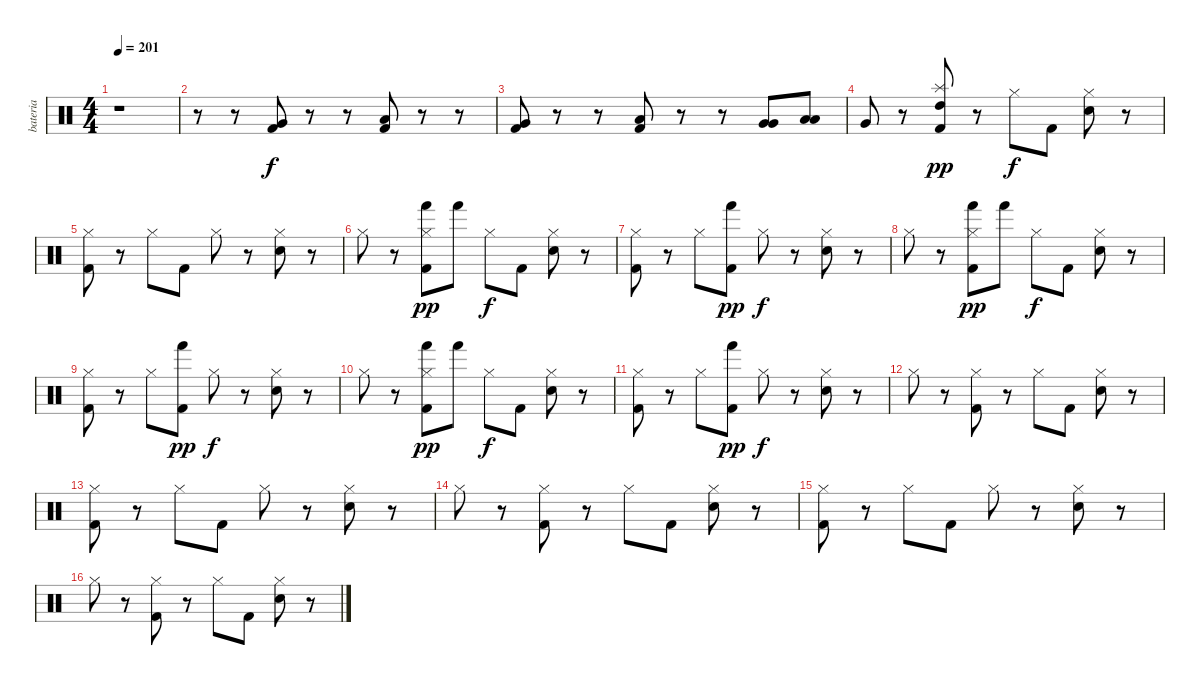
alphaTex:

\track ("bateria" "bateria") {instrument percussion}
\staff {score}
\articulation defaults
\ts (4 4)
\tempo 201
\clef neutral
\ks c
r.1{dy f} |
r.8 r.8 ("Very Low Tom (hit)" "Kick (hit) 2").8 r.8 r.8 ("Low Floor Tom (hit)" "Kick (hit) 2").8 r.8 r.8 |
("Very Low Tom (hit)" "Kick (hit) 2").8 r.8 r.8 ("Low Tom (hit)" "Kick (hit) 2").8 r.8 r.8 ("Very Low Tom (hit)" "Very Low Tom (hit)").8 ("Low Tom (hit)" "Low Tom (hit)").8 |
"Very Low Tom (hit)".8 r.8 ("Splash (hit)" "Kick (hit) 2" "High Tom (hit)").8{dy pp} r.8 "Hi-Hat (closed)".8{dy f} "Kick (hit) 2".8 ("Hi-Hat (closed)" "Electric Snare (hit)").8 r.8 |
("Hi-Hat (closed)" "Kick (hit) 2").8 r.8 "Hi-Hat (closed)".8 "Kick (hit) 2".8 "Hi-Hat (closed)".8 r.8 ("Hi-Hat (closed)" "Electric Snare (hit)").8 r.8 |
"Hi-Hat (closed)".8 r.8 ("Hi-Hat (closed)" "Kick (hit) 2" "Hand (hit)").8{dy pp} "Hand (hit)".8 "Hi-Hat (closed)".8{dy f} "Kick (hit) 2".8 ("Hi-Hat (closed)" "Electric Snare (hit)").8 r.8 |
("Hi-Hat (closed)" "Kick (hit) 2").8 r.8 "Hi-Hat (closed)".8 ("Kick (hit) 2" "Hand (hit)").8{dy pp} "Hi-Hat (closed)".8{dy f} r.8 ("Hi-Hat (closed)" "Electric Snare (hit)").8 r.8 |
"Hi-Hat (closed)".8 r.8 ("Hi-Hat (closed)" "Kick (hit) 2" "Hand (hit)").8{dy pp} "Hand (hit)".8 "Hi-Hat (closed)".8{dy f} "Kick (hit) 2".8 ("Hi-Hat (closed)" "Electric Snare (hit)").8 r.8 |
("Hi-Hat (closed)" "Kick (hit) 2").8 r.8 "Hi-Hat (closed)".8 ("Kick (hit) 2" "Hand (hit)").8{dy pp} "Hi-Hat (closed)".8{dy f} r.8 ("Hi-Hat (closed)" "Electric Snare (hit)").8 r.8 |
"Hi-Hat (closed)".8 r.8 ("Hi-Hat (closed)" "Kick (hit) 2" "Hand (hit)").8{dy pp} "Hand (hit)".8 "Hi-Hat (closed)".8{dy f} "Kick (hit) 2".8 ("Hi-Hat (closed)" "Electric Snare (hit)").8 r.8 |
("Hi-Hat (closed)" "Kick (hit) 2").8 r.8 "Hi-Hat (closed)".8 ("Kick (hit) 2" "Hand (hit)").8{dy pp} "Hi-Hat (closed)".8{dy f} r.8 ("Hi-Hat (closed)" "Electric Snare (hit)").8 r.8 |
"Hi-Hat (closed)".8 r.8 ("Hi-Hat (closed)" "Kick (hit) 2").8 r.8 "Hi-Hat (closed)".8 "Kick (hit) 2".8 ("Hi-Hat (closed)" "Electric Snare (hit)").8 r.8 |
("Hi-Hat (closed)" "Kick (hit) 2").8 r.8 "Hi-Hat (closed)".8 "Kick (hit) 2".8 "Hi-Hat (closed)".8 r.8 ("Hi-Hat (closed)" "Electric Snare (hit)").8 r.8 |
"Hi-Hat (closed)".8 r.8 ("Hi-Hat (closed)" "Kick (hit) 2").8 r.8 "Hi-Hat (closed)".8 "Kick (hit) 2".8 ("Hi-Hat (closed)" "Electric Snare (hit)").8 r.8 |
("Hi-Hat (closed)" "Kick (hit) 2").8 r.8 "Hi-Hat (closed)".8 "Kick (hit) 2".8 "Hi-Hat (closed)".8 r.8 ("Hi-Hat (closed)" "Electric Snare (hit)").8 r.8 |
"Hi-Hat (closed)".8 r.8 ("Hi-Hat (closed)" "Kick (hit) 2").8 r.8 "Hi-Hat (closed)".8 "Kick (hit) 2".8 ("Hi-Hat (closed)" "Electric Snare (hit)").8 r.8
